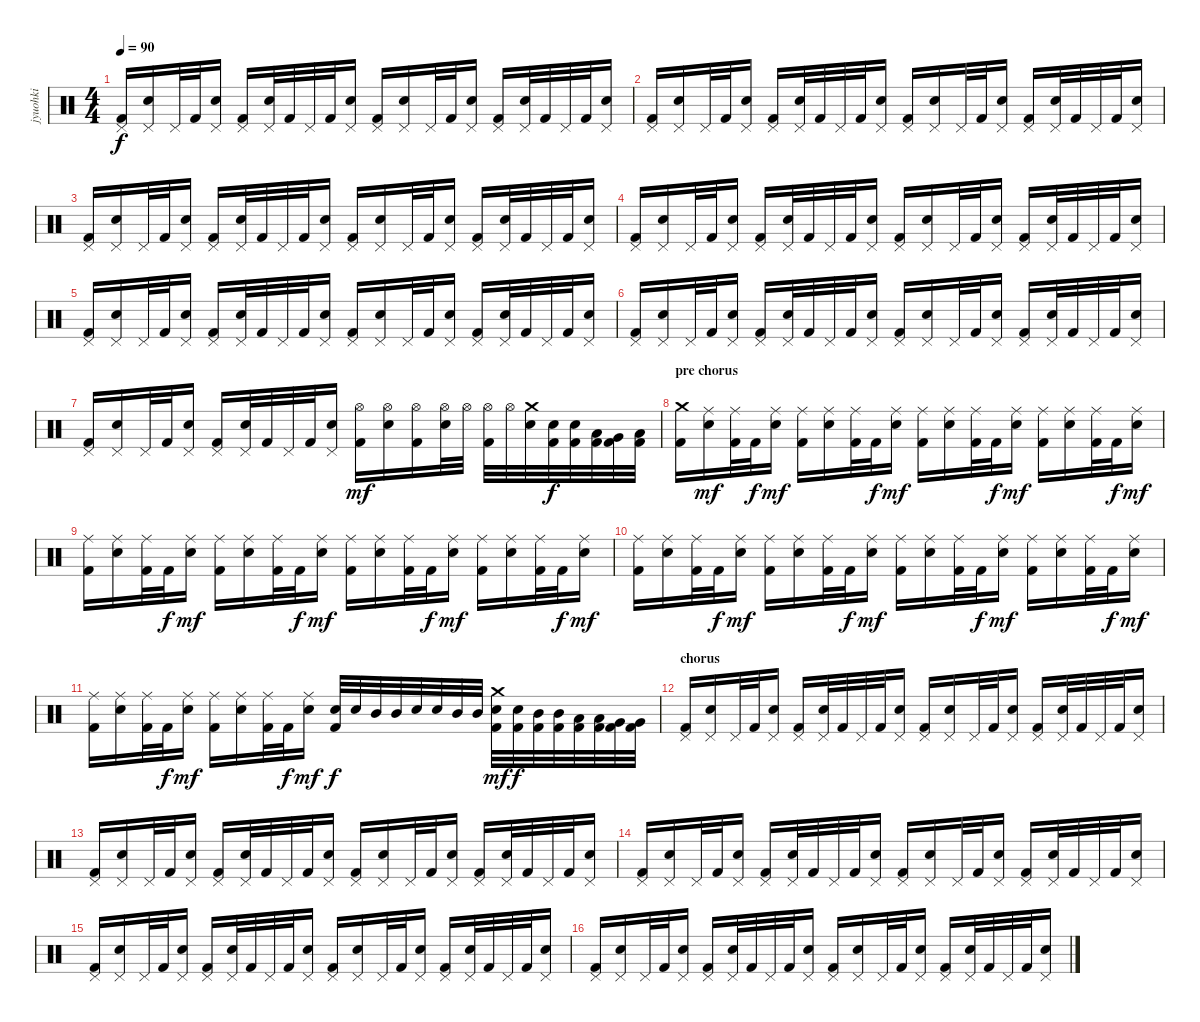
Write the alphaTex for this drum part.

\track ("jyuohki" "jyuohki") {instrument percussion}
\staff {score}
\articulation defaults
\ts (4 4)
\tempo 90
\clef neutral
\ks c
("Pedal Hi-Hat (hit)" "Kick (hit) 2").16{dy f} ("Pedal Hi-Hat (hit)" "Electric Snare (hit)").16 "Pedal Hi-Hat (hit)".32 "Kick (hit) 2".32 ("Pedal Hi-Hat (hit)" "Electric Snare (hit)").16 ("Pedal Hi-Hat (hit)" "Kick (hit) 2").16 ("Pedal Hi-Hat (hit)" "Electric Snare (hit)").32 "Kick (hit) 2".32 "Pedal Hi-Hat (hit)".32 "Kick (hit) 2".32 ("Pedal Hi-Hat (hit)" "Electric Snare (hit)").16 ("Pedal Hi-Hat (hit)" "Kick (hit) 2").16 ("Pedal Hi-Hat (hit)" "Electric Snare (hit)").16 "Pedal Hi-Hat (hit)".32 "Kick (hit) 2".32 ("Pedal Hi-Hat (hit)" "Electric Snare (hit)").16 ("Pedal Hi-Hat (hit)" "Kick (hit) 2").16 ("Pedal Hi-Hat (hit)" "Electric Snare (hit)").32 "Kick (hit) 2".32 "Pedal Hi-Hat (hit)".32 "Kick (hit) 2".32 ("Pedal Hi-Hat (hit)" "Electric Snare (hit)").16 |
("Pedal Hi-Hat (hit)" "Kick (hit) 2").16 ("Pedal Hi-Hat (hit)" "Electric Snare (hit)").16 "Pedal Hi-Hat (hit)".32 "Kick (hit) 2".32 ("Pedal Hi-Hat (hit)" "Electric Snare (hit)").16 ("Pedal Hi-Hat (hit)" "Kick (hit) 2").16 ("Pedal Hi-Hat (hit)" "Electric Snare (hit)").32 "Kick (hit) 2".32 "Pedal Hi-Hat (hit)".32 "Kick (hit) 2".32 ("Pedal Hi-Hat (hit)" "Electric Snare (hit)").16 ("Pedal Hi-Hat (hit)" "Kick (hit) 2").16 ("Pedal Hi-Hat (hit)" "Electric Snare (hit)").16 "Pedal Hi-Hat (hit)".32 "Kick (hit) 2".32 ("Pedal Hi-Hat (hit)" "Electric Snare (hit)").16 ("Pedal Hi-Hat (hit)" "Kick (hit) 2").16 ("Pedal Hi-Hat (hit)" "Electric Snare (hit)").32 "Kick (hit) 2".32 "Pedal Hi-Hat (hit)".32 "Kick (hit) 2".32 ("Pedal Hi-Hat (hit)" "Electric Snare (hit)").16 |
("Pedal Hi-Hat (hit)" "Kick (hit) 2").16 ("Pedal Hi-Hat (hit)" "Electric Snare (hit)").16 "Pedal Hi-Hat (hit)".32 "Kick (hit) 2".32 ("Pedal Hi-Hat (hit)" "Electric Snare (hit)").16 ("Pedal Hi-Hat (hit)" "Kick (hit) 2").16 ("Pedal Hi-Hat (hit)" "Electric Snare (hit)").32 "Kick (hit) 2".32 "Pedal Hi-Hat (hit)".32 "Kick (hit) 2".32 ("Pedal Hi-Hat (hit)" "Electric Snare (hit)").16 ("Pedal Hi-Hat (hit)" "Kick (hit) 2").16 ("Pedal Hi-Hat (hit)" "Electric Snare (hit)").16 "Pedal Hi-Hat (hit)".32 "Kick (hit) 2".32 ("Pedal Hi-Hat (hit)" "Electric Snare (hit)").16 ("Pedal Hi-Hat (hit)" "Kick (hit) 2").16 ("Pedal Hi-Hat (hit)" "Electric Snare (hit)").32 "Kick (hit) 2".32 "Pedal Hi-Hat (hit)".32 "Kick (hit) 2".32 ("Pedal Hi-Hat (hit)" "Electric Snare (hit)").16 |
("Pedal Hi-Hat (hit)" "Kick (hit) 2").16 ("Pedal Hi-Hat (hit)" "Electric Snare (hit)").16 "Pedal Hi-Hat (hit)".32 "Kick (hit) 2".32 ("Pedal Hi-Hat (hit)" "Electric Snare (hit)").16 ("Pedal Hi-Hat (hit)" "Kick (hit) 2").16 ("Pedal Hi-Hat (hit)" "Electric Snare (hit)").32 "Kick (hit) 2".32 "Pedal Hi-Hat (hit)".32 "Kick (hit) 2".32 ("Pedal Hi-Hat (hit)" "Electric Snare (hit)").16 ("Pedal Hi-Hat (hit)" "Kick (hit) 2").16 ("Pedal Hi-Hat (hit)" "Electric Snare (hit)").16 "Pedal Hi-Hat (hit)".32 "Kick (hit) 2".32 ("Pedal Hi-Hat (hit)" "Electric Snare (hit)").16 ("Pedal Hi-Hat (hit)" "Kick (hit) 2").16 ("Pedal Hi-Hat (hit)" "Electric Snare (hit)").32 "Kick (hit) 2".32 "Pedal Hi-Hat (hit)".32 "Kick (hit) 2".32 ("Pedal Hi-Hat (hit)" "Electric Snare (hit)").16 |
("Pedal Hi-Hat (hit)" "Kick (hit) 2").16 ("Pedal Hi-Hat (hit)" "Electric Snare (hit)").16 "Pedal Hi-Hat (hit)".32 "Kick (hit) 2".32 ("Pedal Hi-Hat (hit)" "Electric Snare (hit)").16 ("Pedal Hi-Hat (hit)" "Kick (hit) 2").16 ("Pedal Hi-Hat (hit)" "Electric Snare (hit)").32 "Kick (hit) 2".32 "Pedal Hi-Hat (hit)".32 "Kick (hit) 2".32 ("Pedal Hi-Hat (hit)" "Electric Snare (hit)").16 ("Pedal Hi-Hat (hit)" "Kick (hit) 2").16 ("Pedal Hi-Hat (hit)" "Electric Snare (hit)").16 "Pedal Hi-Hat (hit)".32 "Kick (hit) 2".32 ("Pedal Hi-Hat (hit)" "Electric Snare (hit)").16 ("Pedal Hi-Hat (hit)" "Kick (hit) 2").16 ("Pedal Hi-Hat (hit)" "Electric Snare (hit)").32 "Kick (hit) 2".32 "Pedal Hi-Hat (hit)".32 "Kick (hit) 2".32 ("Pedal Hi-Hat (hit)" "Electric Snare (hit)").16 |
("Pedal Hi-Hat (hit)" "Kick (hit) 2").16 ("Pedal Hi-Hat (hit)" "Electric Snare (hit)").16 "Pedal Hi-Hat (hit)".32 "Kick (hit) 2".32 ("Pedal Hi-Hat (hit)" "Electric Snare (hit)").16 ("Pedal Hi-Hat (hit)" "Kick (hit) 2").16 ("Pedal Hi-Hat (hit)" "Electric Snare (hit)").32 "Kick (hit) 2".32 "Pedal Hi-Hat (hit)".32 "Kick (hit) 2".32 ("Pedal Hi-Hat (hit)" "Electric Snare (hit)").16 ("Pedal Hi-Hat (hit)" "Kick (hit) 2").16 ("Pedal Hi-Hat (hit)" "Electric Snare (hit)").16 "Pedal Hi-Hat (hit)".32 "Kick (hit) 2".32 ("Pedal Hi-Hat (hit)" "Electric Snare (hit)").16 ("Pedal Hi-Hat (hit)" "Kick (hit) 2").16 ("Pedal Hi-Hat (hit)" "Electric Snare (hit)").32 "Kick (hit) 2".32 "Pedal Hi-Hat (hit)".32 "Kick (hit) 2".32 ("Pedal Hi-Hat (hit)" "Electric Snare (hit)").16 |
("Pedal Hi-Hat (hit)" "Kick (hit) 2").16 ("Pedal Hi-Hat (hit)" "Electric Snare (hit)").16 "Pedal Hi-Hat (hit)".32 "Kick (hit) 2".32 ("Pedal Hi-Hat (hit)" "Electric Snare (hit)").16 ("Pedal Hi-Hat (hit)" "Kick (hit) 2").16 ("Pedal Hi-Hat (hit)" "Electric Snare (hit)").32 "Kick (hit) 2".32 "Pedal Hi-Hat (hit)".32 "Kick (hit) 2".32 ("Pedal Hi-Hat (hit)" "Electric Snare (hit)").16 ("Hi-Hat (open)" "Kick (hit) 2").16{dy mf} ("Hi-Hat (open)" "Electric Snare (hit)").16 ("Hi-Hat (open)" "Kick (hit) 2").16 ("Hi-Hat (open)" "Electric Snare (hit)").32 "Hi-Hat (open)".32 ("Hi-Hat (open)" "Kick (hit) 2").32 "Hi-Hat (open)".32 ("Crash medium (hit)" "Electric Snare (hit)").32 ("Electric Snare (hit)" "Kick (hit) 2").32{dy f} ("Electric Snare (hit)" "Kick (hit) 2").32 ("Low Tom (hit)" "Kick (hit) 2").32 ("Very Low Tom (hit)" "Kick (hit) 2").32 ("Low Floor Tom (hit)" "Kick (hit) 2").32 |
\section ("" "pre chorus")
("Crash medium (hit)" "Kick (hit) 2").16 ("Ride (middle)" "Electric Snare (hit)").16{dy mf} ("Ride (middle)" "Kick (hit) 2").32 "Kick (hit) 2".32{dy f} ("Ride (middle)" "Electric Snare (hit)").16{dy mf} ("Ride (middle)" "Kick (hit) 2").16 ("Ride (middle)" "Electric Snare (hit)").16 ("Ride (middle)" "Kick (hit) 2").32 "Kick (hit) 2".32{dy f} ("Ride (middle)" "Electric Snare (hit)").16{dy mf} ("Ride (middle)" "Kick (hit) 2").16 ("Ride (middle)" "Electric Snare (hit)").16 ("Ride (middle)" "Kick (hit) 2").32 "Kick (hit) 2".32{dy f} ("Ride (middle)" "Electric Snare (hit)").16{dy mf} ("Ride (middle)" "Kick (hit) 2").16 ("Ride (middle)" "Electric Snare (hit)").16 ("Ride (middle)" "Kick (hit) 2").32 "Kick (hit) 2".32{dy f} ("Ride (middle)" "Electric Snare (hit)").16{dy mf} |
("Ride (middle)" "Kick (hit) 2").16 ("Ride (middle)" "Electric Snare (hit)").16 ("Ride (middle)" "Kick (hit) 2").32 "Kick (hit) 2".32{dy f} ("Ride (middle)" "Electric Snare (hit)").16{dy mf} ("Ride (middle)" "Kick (hit) 2").16 ("Ride (middle)" "Electric Snare (hit)").16 ("Ride (middle)" "Kick (hit) 2").32 "Kick (hit) 2".32{dy f} ("Ride (middle)" "Electric Snare (hit)").16{dy mf} ("Ride (middle)" "Kick (hit) 2").16 ("Ride (middle)" "Electric Snare (hit)").16 ("Ride (middle)" "Kick (hit) 2").32 "Kick (hit) 2".32{dy f} ("Ride (middle)" "Electric Snare (hit)").16{dy mf} ("Ride (middle)" "Kick (hit) 2").16 ("Ride (middle)" "Electric Snare (hit)").16 ("Ride (middle)" "Kick (hit) 2").32 "Kick (hit) 2".32{dy f} ("Ride (middle)" "Electric Snare (hit)").16{dy mf} |
("Ride (middle)" "Kick (hit) 2").16 ("Ride (middle)" "Electric Snare (hit)").16 ("Ride (middle)" "Kick (hit) 2").32 "Kick (hit) 2".32{dy f} ("Ride (middle)" "Electric Snare (hit)").16{dy mf} ("Ride (middle)" "Kick (hit) 2").16 ("Ride (middle)" "Electric Snare (hit)").16 ("Ride (middle)" "Kick (hit) 2").32 "Kick (hit) 2".32{dy f} ("Ride (middle)" "Electric Snare (hit)").16{dy mf} ("Ride (middle)" "Kick (hit) 2").16 ("Ride (middle)" "Electric Snare (hit)").16 ("Ride (middle)" "Kick (hit) 2").32 "Kick (hit) 2".32{dy f} ("Ride (middle)" "Electric Snare (hit)").16{dy mf} ("Ride (middle)" "Kick (hit) 2").16 ("Ride (middle)" "Electric Snare (hit)").16 ("Ride (middle)" "Kick (hit) 2").32 "Kick (hit) 2".32{dy f} ("Ride (middle)" "Electric Snare (hit)").16{dy mf} |
("Ride (middle)" "Kick (hit) 2").16 ("Ride (middle)" "Electric Snare (hit)").16 ("Ride (middle)" "Kick (hit) 2").32 "Kick (hit) 2".32{dy f} ("Ride (middle)" "Electric Snare (hit)").16{dy mf} ("Ride (middle)" "Kick (hit) 2").16 ("Ride (middle)" "Electric Snare (hit)").16 ("Ride (middle)" "Kick (hit) 2").32 "Kick (hit) 2".32{dy f} ("Ride (middle)" "Electric Snare (hit)").16{dy mf} ("Electric Snare (hit)" "Kick (hit) 2").32{dy f} "Electric Snare (hit)".32 "Mid Tom (hit)".32 "Mid Tom (hit)".32 "Electric Snare (hit)".32 "Electric Snare (hit)".32 "Mid Tom (hit)".32 "Mid Tom (hit)".32 ("Crash medium (hit)" "Electric Snare (hit)" "Kick (hit) 2").32{dy mf} ("Electric Snare (hit)" "Kick (hit) 2").32{dy f} ("Mid Tom (hit)" "Kick (hit) 2").32 ("Mid Tom (hit)" "Kick (hit) 2").32 ("Low Tom (hit)" "Kick (hit) 2").32 ("Low Tom (hit)" "Kick (hit) 2").32 ("Very Low Tom (hit)" "Kick (hit) 2").32 ("Very Low Tom (hit)" "Kick (hit) 2").32 |
\section ("" "chorus")
("Pedal Hi-Hat (hit)" "Kick (hit) 2").16 ("Pedal Hi-Hat (hit)" "Electric Snare (hit)").16 "Pedal Hi-Hat (hit)".32 "Kick (hit) 2".32 ("Pedal Hi-Hat (hit)" "Electric Snare (hit)").16 ("Pedal Hi-Hat (hit)" "Kick (hit) 2").16 ("Pedal Hi-Hat (hit)" "Electric Snare (hit)").32 "Kick (hit) 2".32 "Pedal Hi-Hat (hit)".32 "Kick (hit) 2".32 ("Pedal Hi-Hat (hit)" "Electric Snare (hit)").16 ("Pedal Hi-Hat (hit)" "Kick (hit) 2").16 ("Pedal Hi-Hat (hit)" "Electric Snare (hit)").16 "Pedal Hi-Hat (hit)".32 "Kick (hit) 2".32 ("Pedal Hi-Hat (hit)" "Electric Snare (hit)").16 ("Pedal Hi-Hat (hit)" "Kick (hit) 2").16 ("Pedal Hi-Hat (hit)" "Electric Snare (hit)").32 "Kick (hit) 2".32 "Pedal Hi-Hat (hit)".32 "Kick (hit) 2".32 ("Pedal Hi-Hat (hit)" "Electric Snare (hit)").16 |
("Pedal Hi-Hat (hit)" "Kick (hit) 2").16 ("Pedal Hi-Hat (hit)" "Electric Snare (hit)").16 "Pedal Hi-Hat (hit)".32 "Kick (hit) 2".32 ("Pedal Hi-Hat (hit)" "Electric Snare (hit)").16 ("Pedal Hi-Hat (hit)" "Kick (hit) 2").16 ("Pedal Hi-Hat (hit)" "Electric Snare (hit)").32 "Kick (hit) 2".32 "Pedal Hi-Hat (hit)".32 "Kick (hit) 2".32 ("Pedal Hi-Hat (hit)" "Electric Snare (hit)").16 ("Pedal Hi-Hat (hit)" "Kick (hit) 2").16 ("Pedal Hi-Hat (hit)" "Electric Snare (hit)").16 "Pedal Hi-Hat (hit)".32 "Kick (hit) 2".32 ("Pedal Hi-Hat (hit)" "Electric Snare (hit)").16 ("Pedal Hi-Hat (hit)" "Kick (hit) 2").16 ("Pedal Hi-Hat (hit)" "Electric Snare (hit)").32 "Kick (hit) 2".32 "Pedal Hi-Hat (hit)".32 "Kick (hit) 2".32 ("Pedal Hi-Hat (hit)" "Electric Snare (hit)").16 |
("Pedal Hi-Hat (hit)" "Kick (hit) 2").16 ("Pedal Hi-Hat (hit)" "Electric Snare (hit)").16 "Pedal Hi-Hat (hit)".32 "Kick (hit) 2".32 ("Pedal Hi-Hat (hit)" "Electric Snare (hit)").16 ("Pedal Hi-Hat (hit)" "Kick (hit) 2").16 ("Pedal Hi-Hat (hit)" "Electric Snare (hit)").32 "Kick (hit) 2".32 "Pedal Hi-Hat (hit)".32 "Kick (hit) 2".32 ("Pedal Hi-Hat (hit)" "Electric Snare (hit)").16 ("Pedal Hi-Hat (hit)" "Kick (hit) 2").16 ("Pedal Hi-Hat (hit)" "Electric Snare (hit)").16 "Pedal Hi-Hat (hit)".32 "Kick (hit) 2".32 ("Pedal Hi-Hat (hit)" "Electric Snare (hit)").16 ("Pedal Hi-Hat (hit)" "Kick (hit) 2").16 ("Pedal Hi-Hat (hit)" "Electric Snare (hit)").32 "Kick (hit) 2".32 "Pedal Hi-Hat (hit)".32 "Kick (hit) 2".32 ("Pedal Hi-Hat (hit)" "Electric Snare (hit)").16 |
("Pedal Hi-Hat (hit)" "Kick (hit) 2").16 ("Pedal Hi-Hat (hit)" "Electric Snare (hit)").16 "Pedal Hi-Hat (hit)".32 "Kick (hit) 2".32 ("Pedal Hi-Hat (hit)" "Electric Snare (hit)").16 ("Pedal Hi-Hat (hit)" "Kick (hit) 2").16 ("Pedal Hi-Hat (hit)" "Electric Snare (hit)").32 "Kick (hit) 2".32 "Pedal Hi-Hat (hit)".32 "Kick (hit) 2".32 ("Pedal Hi-Hat (hit)" "Electric Snare (hit)").16 ("Pedal Hi-Hat (hit)" "Kick (hit) 2").16 ("Pedal Hi-Hat (hit)" "Electric Snare (hit)").16 "Pedal Hi-Hat (hit)".32 "Kick (hit) 2".32 ("Pedal Hi-Hat (hit)" "Electric Snare (hit)").16 ("Pedal Hi-Hat (hit)" "Kick (hit) 2").16 ("Pedal Hi-Hat (hit)" "Electric Snare (hit)").32 "Kick (hit) 2".32 "Pedal Hi-Hat (hit)".32 "Kick (hit) 2".32 ("Pedal Hi-Hat (hit)" "Electric Snare (hit)").16 |
("Pedal Hi-Hat (hit)" "Kick (hit) 2").16 ("Pedal Hi-Hat (hit)" "Electric Snare (hit)").16 "Pedal Hi-Hat (hit)".32 "Kick (hit) 2".32 ("Pedal Hi-Hat (hit)" "Electric Snare (hit)").16 ("Pedal Hi-Hat (hit)" "Kick (hit) 2").16 ("Pedal Hi-Hat (hit)" "Electric Snare (hit)").32 "Kick (hit) 2".32 "Pedal Hi-Hat (hit)".32 "Kick (hit) 2".32 ("Pedal Hi-Hat (hit)" "Electric Snare (hit)").16 ("Pedal Hi-Hat (hit)" "Kick (hit) 2").16 ("Pedal Hi-Hat (hit)" "Electric Snare (hit)").16 "Pedal Hi-Hat (hit)".32 "Kick (hit) 2".32 ("Pedal Hi-Hat (hit)" "Electric Snare (hit)").16 ("Pedal Hi-Hat (hit)" "Kick (hit) 2").16 ("Pedal Hi-Hat (hit)" "Electric Snare (hit)").32 "Kick (hit) 2".32 "Pedal Hi-Hat (hit)".32 "Kick (hit) 2".32 ("Pedal Hi-Hat (hit)" "Electric Snare (hit)").16
